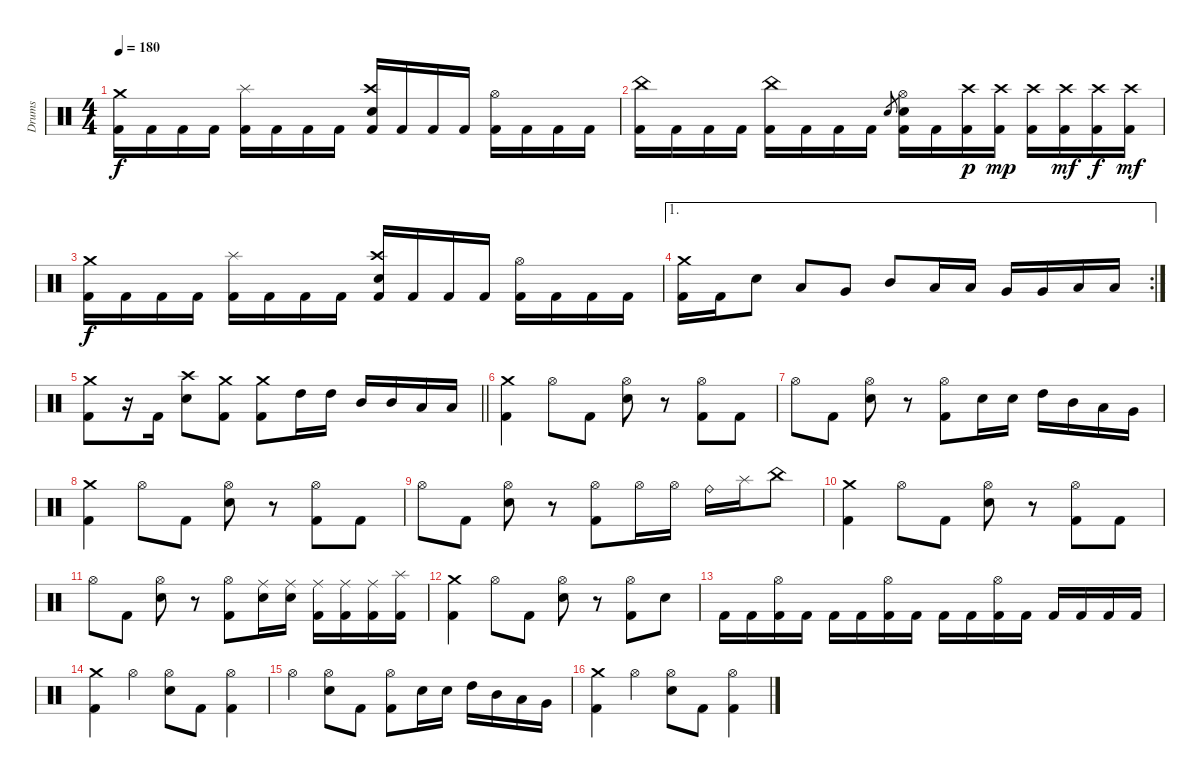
\track ("Drums" "Drums") {instrument percussion}
\staff {score}
\articulation defaults
\ts (4 4)
\tempo 180
\clef neutral
\ks c
("Crash medium (hit)" "Kick (hit) 2").16{dy f} "Kick (hit) 2".16 "Kick (hit) 2".16 "Kick (hit) 2".16 ("Splash (hit)" "Kick (hit) 2").16 "Kick (hit) 2".16 "Kick (hit) 2".16 "Kick (hit) 2".16 ("Crash high (hit)" "Electric Snare (hit)" "Kick (hit) 2").16 "Kick (hit) 2".16 "Kick (hit) 2".16 "Kick (hit) 2".16 ("Hi-Hat (open)" "Kick (hit) 2").16 "Kick (hit) 2".16 "Kick (hit) 2".16 "Kick (hit) 2".16 |
("China (hit)" "Kick (hit) 2").16 "Kick (hit) 2".16 "Kick (hit) 2".16 "Kick (hit) 2".16 ("China (hit)" "Kick (hit) 2").16 "Kick (hit) 2".16 "Kick (hit) 2".16 "Kick (hit) 2".16 "Electric Snare (hit)".8{gr} ("Hi-Hat (open)" "Electric Snare (hit)" "Kick (hit) 2").16 "Kick (hit) 2".16 ("Crash high (hit)" "Kick (hit) 2").16{dy p} ("Crash high (hit)" "Kick (hit) 2").16{dy mp} ("Crash high (hit)" "Kick (hit) 2").16 ("Crash high (hit)" "Kick (hit) 2").16{dy mf} ("Crash high (hit)" "Kick (hit) 2").16{dy f} ("Crash high (hit)" "Kick (hit) 2").16{dy mf} |
("Crash medium (hit)" "Kick (hit) 2").16{dy f} "Kick (hit) 2".16 "Kick (hit) 2".16 "Kick (hit) 2".16 ("Splash (hit)" "Kick (hit) 2").16 "Kick (hit) 2".16 "Kick (hit) 2".16 "Kick (hit) 2".16 ("Crash high (hit)" "Electric Snare (hit)" "Kick (hit) 2").16 "Kick (hit) 2".16 "Kick (hit) 2".16 "Kick (hit) 2".16 ("Hi-Hat (open)" "Kick (hit) 2").16 "Kick (hit) 2".16 "Kick (hit) 2".16 "Kick (hit) 2".16 |
\ae 1
\rc 2
("Crash medium (hit)" "Kick (hit) 2").16 "Kick (hit) 2".16 "Electric Snare (hit)".8 "Low Tom (hit)".8 "Very Low Tom (hit)".8 "Mid Tom (hit)".8 "Low Tom (hit)".16 "Low Tom (hit)".16 "Very Low Tom (hit)".16 "Very Low Tom (hit)".16 "Low Floor Tom (hit)".16 "Low Floor Tom (hit)".16 |
\barLineRight lightlight
("Crash medium (hit)" "Kick (hit) 2").8 r.16 "Kick (hit) 2".16 ("Crash high (hit)" "Electric Snare (hit)").8 ("Crash medium (hit)" "Kick (hit) 2").8 ("Crash medium (hit)" "Kick (hit) 2").8 "High Tom (hit)".16 "High Tom (hit)".16 "Mid Tom (hit)".16 "Mid Tom (hit)".16 "Low Tom (hit)".16 "Low Tom (hit)".16 |
\section ("" "")
("Crash medium (hit)" "Kick (hit) 2").4 "Hi-Hat (open)".8 "Kick (hit) 2".8 ("Hi-Hat (open)" "Electric Snare (hit)").8 r.8 ("Hi-Hat (open)" "Kick (hit) 2").8 "Kick (hit) 2".8 |
"Hi-Hat (open)".8 "Kick (hit) 2".8 ("Hi-Hat (open)" "Electric Snare (hit)").8 r.8 ("Hi-Hat (open)" "Kick (hit) 2").8 "Electric Snare (hit)".16 "Electric Snare (hit)".16 "High Tom (hit)".16 "Mid Tom (hit)".16 "Low Tom (hit)".16 "Very Low Tom (hit)".16 |
("Crash medium (hit)" "Kick (hit) 2").4 "Hi-Hat (open)".8 "Kick (hit) 2".8 ("Hi-Hat (open)" "Electric Snare (hit)").8 r.8 ("Hi-Hat (open)" "Kick (hit) 2").8 "Kick (hit) 2".8 |
"Hi-Hat (open)".8 "Kick (hit) 2".8 ("Hi-Hat (open)" "Electric Snare (hit)").8 r.8 ("Hi-Hat (open)" "Kick (hit) 2").8 "Hi-Hat (open)".16 "Hi-Hat (open)".16 "Ride (bell)".16 "Splash (hit)".16 "China (hit)".8 |
("Crash medium (hit)" "Kick (hit) 2").4 "Hi-Hat (open)".8 "Kick (hit) 2".8 ("Hi-Hat (open)" "Electric Snare (hit)").8 r.8 ("Hi-Hat (open)" "Kick (hit) 2").8 "Kick (hit) 2".8 |
"Hi-Hat (open)".8 "Kick (hit) 2".8 ("Hi-Hat (open)" "Electric Snare (hit)").8 r.8 ("Hi-Hat (open)" "Kick (hit) 2").8 ("Ride (middle)" "Electric Snare (hit)").16 ("Ride (middle)" "Electric Snare (hit)").16 ("Ride (middle)" "Kick (hit) 2").16 ("Ride (middle)" "Kick (hit) 2").16 ("Ride (middle)" "Kick (hit) 2").16 ("Splash (hit)" "Kick (hit) 2").16 |
("Crash medium (hit)" "Kick (hit) 2").4 "Hi-Hat (open)".8 "Kick (hit) 2".8 ("Hi-Hat (open)" "Electric Snare (hit)").8 r.8 ("Hi-Hat (open)" "Kick (hit) 2").8 "Electric Snare (hit)".8 |
"Kick (hit) 2".16 "Kick (hit) 2".16 ("Hi-Hat (open)" "Kick (hit) 2").16 "Kick (hit) 2".16 "Kick (hit) 2".16 "Kick (hit) 2".16 ("Hi-Hat (open)" "Kick (hit) 2").16 "Kick (hit) 2".16 "Kick (hit) 2".16 "Kick (hit) 2".16 ("Hi-Hat (open)" "Kick (hit) 2").16 "Kick (hit) 2".16 "Kick (hit) 2".16 "Kick (hit) 2".16 "Kick (hit) 2".16 "Kick (hit) 2".16 |
("Crash medium (hit)" "Kick (hit) 2").4 "Hi-Hat (open)".4 ("Hi-Hat (open)" "Electric Snare (hit)").8 "Kick (hit) 2".8 ("Hi-Hat (open)" "Kick (hit) 2").4 |
"Hi-Hat (open)".4 ("Hi-Hat (open)" "Electric Snare (hit)").8 "Kick (hit) 2".8 ("Hi-Hat (open)" "Kick (hit) 2").8 "Electric Snare (hit)".16 "Electric Snare (hit)".16 "High Tom (hit)".16 "Mid Tom (hit)".16 "Low Tom (hit)".16 "Very Low Tom (hit)".16 |
("Crash medium (hit)" "Kick (hit) 2").4 "Hi-Hat (open)".4 ("Hi-Hat (open)" "Electric Snare (hit)").8 "Kick (hit) 2".8 ("Hi-Hat (open)" "Kick (hit) 2").4
